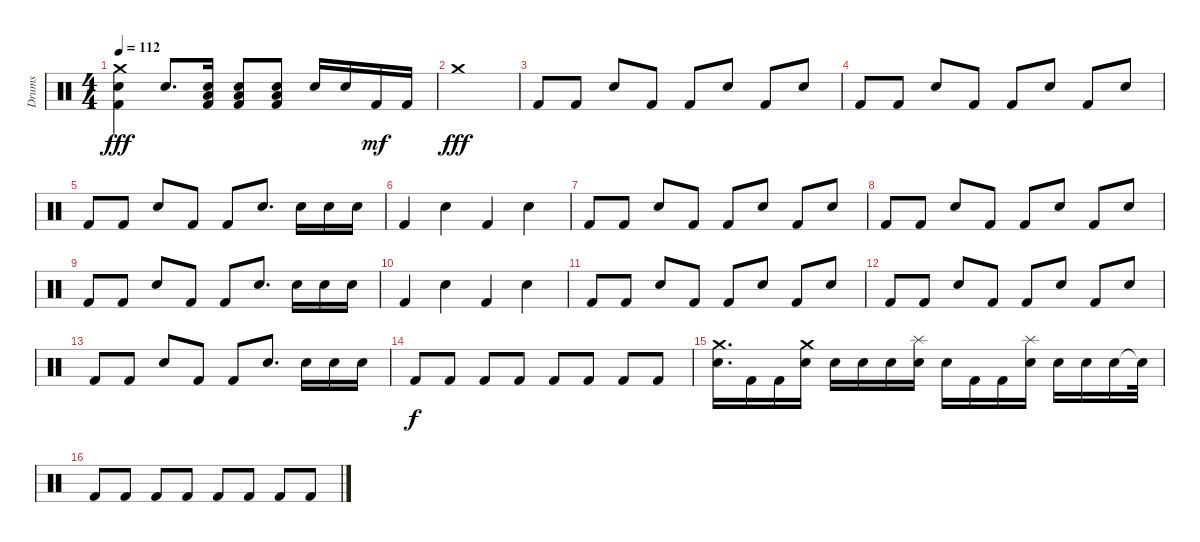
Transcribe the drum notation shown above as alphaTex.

\track ("Drums" "Drums") {instrument percussion}
\staff {score}
\articulation defaults
\ts (4 4)
\tempo 112
\clef neutral
\ks c
("Crash medium (hit)" "Electric Snare (hit)" "Kick (hit) 2").4{dy fff} "Electric Snare (hit)".8{d} ("Kick (hit) 2" "Snare (hit) 2" "Low Floor Tom (hit)").16 ("Kick (hit) 2" "Snare (hit) 2" "Low Floor Tom (hit)").8 ("Kick (hit) 2" "Snare (hit) 2" "Low Floor Tom (hit)").8 "Electric Snare (hit)".16 "Electric Snare (hit)".16 "Kick (hit) 2".16{dy mf} "Kick (hit) 2".16 |
"Crash medium (hit)".1{dy fff} |
"Kick (hit) 2".8 "Kick (hit) 2".8 "Electric Snare (hit)".8 "Kick (hit) 2".8 "Kick (hit) 2".8 "Electric Snare (hit)".8 "Kick (hit) 2".8 "Electric Snare (hit)".8 |
"Kick (hit) 2".8 "Kick (hit) 2".8 "Electric Snare (hit)".8 "Kick (hit) 2".8 "Kick (hit) 2".8 "Electric Snare (hit)".8 "Kick (hit) 2".8 "Electric Snare (hit)".8 |
"Kick (hit) 2".8 "Kick (hit) 2".8 "Electric Snare (hit)".8 "Kick (hit) 2".8 "Kick (hit) 2".8 "Electric Snare (hit)".8{d} "Electric Snare (hit)".16 "Electric Snare (hit)".16 "Electric Snare (hit)".16 |
"Kick (hit) 2".4 "Electric Snare (hit)".4 "Kick (hit) 2".4 "Electric Snare (hit)".4 |
"Kick (hit) 2".8 "Kick (hit) 2".8 "Electric Snare (hit)".8 "Kick (hit) 2".8 "Kick (hit) 2".8 "Electric Snare (hit)".8 "Kick (hit) 2".8 "Electric Snare (hit)".8 |
"Kick (hit) 2".8 "Kick (hit) 2".8 "Electric Snare (hit)".8 "Kick (hit) 2".8 "Kick (hit) 2".8 "Electric Snare (hit)".8 "Kick (hit) 2".8 "Electric Snare (hit)".8 |
"Kick (hit) 2".8 "Kick (hit) 2".8 "Electric Snare (hit)".8 "Kick (hit) 2".8 "Kick (hit) 2".8 "Electric Snare (hit)".8{d} "Electric Snare (hit)".16 "Electric Snare (hit)".16 "Electric Snare (hit)".16 |
"Kick (hit) 2".4 "Electric Snare (hit)".4 "Kick (hit) 2".4 "Electric Snare (hit)".4 |
"Kick (hit) 2".8 "Kick (hit) 2".8 "Electric Snare (hit)".8 "Kick (hit) 2".8 "Kick (hit) 2".8 "Electric Snare (hit)".8 "Kick (hit) 2".8 "Electric Snare (hit)".8 |
"Kick (hit) 2".8 "Kick (hit) 2".8 "Electric Snare (hit)".8 "Kick (hit) 2".8 "Kick (hit) 2".8 "Electric Snare (hit)".8 "Kick (hit) 2".8 "Electric Snare (hit)".8 |
"Kick (hit) 2".8 "Kick (hit) 2".8 "Electric Snare (hit)".8 "Kick (hit) 2".8 "Kick (hit) 2".8 "Electric Snare (hit)".8{d} "Electric Snare (hit)".16 "Electric Snare (hit)".16 "Electric Snare (hit)".16 |
"Kick (hit) 2".8{dy f} "Kick (hit) 2".8 "Kick (hit) 2".8 "Kick (hit) 2".8 "Kick (hit) 2".8 "Kick (hit) 2".8 "Kick (hit) 2".8 "Kick (hit) 2".8 |
("Crash medium (hit)" "Snare (hit) 2").16{d} "Kick (hit) 2".16 "Kick (hit) 2".16 ("Crash medium (hit)" "Electric Snare (hit)").16 "Electric Snare (hit)".16 "Snare (hit) 2".16 "Snare (hit) 2".16 ("Splash (hit)" "Snare (hit) 2").16 "Snare (hit) 2".16 "Kick (hit) 2".16 "Kick (hit) 2".16 ("Splash (hit)" "Electric Snare (hit)").16 "Snare (hit) 2".16 "Snare (hit) 2".16 "Snare (hit) 2".16 "Snare (hit) 2"{t}.32 |
"Kick (hit) 2".8 "Kick (hit) 2".8 "Kick (hit) 2".8 "Kick (hit) 2".8 "Kick (hit) 2".8 "Kick (hit) 2".8 "Kick (hit) 2".8 "Kick (hit) 2".8
